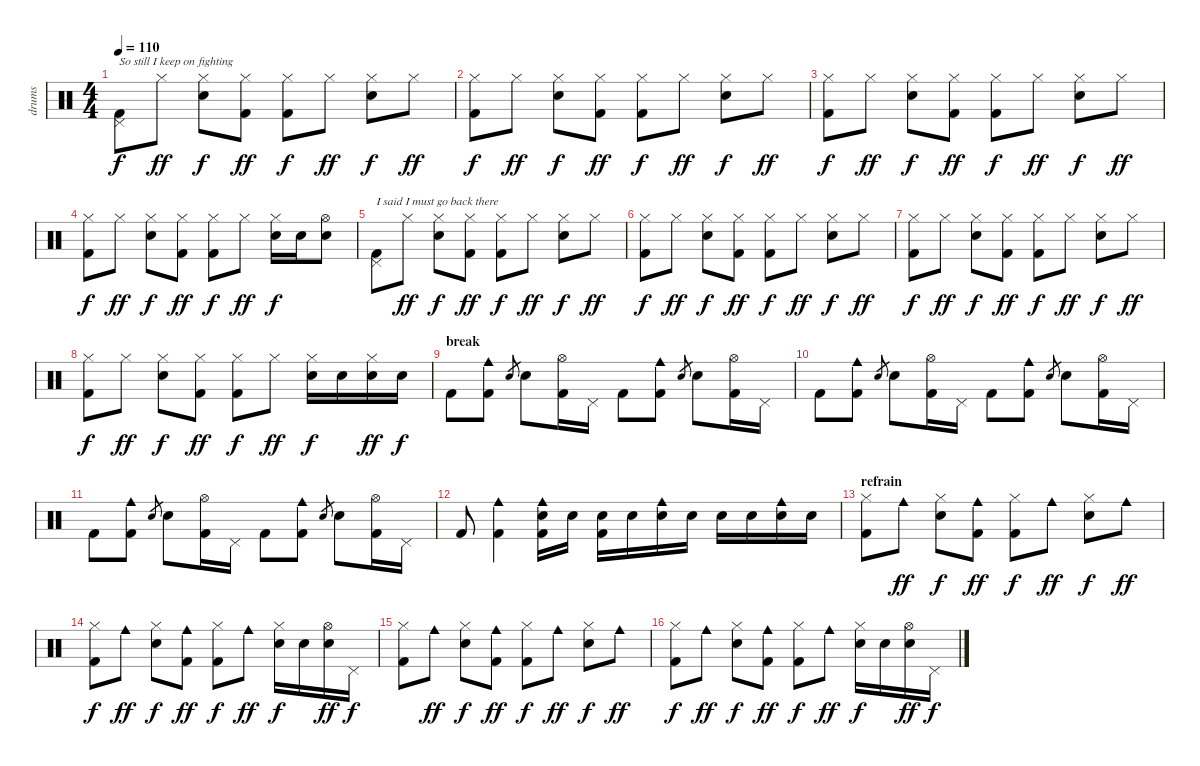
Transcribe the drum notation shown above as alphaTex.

\track ("drums" "drums") {instrument percussion}
\staff {score}
\articulation defaults
\ts (4 4)
\tempo 110
\clef neutral
\ks aminor
("Pedal Hi-Hat (hit)" "Kick (hit) 2").8{txt "So still I keep on fighting" dy f} "Hi-Hat (closed)".8{dy ff} ("Hi-Hat (closed)" "Snare (hit) 2").8{dy f} ("Hi-Hat (closed)" "Kick (hit) 2").8{dy ff} ("Hi-Hat (closed)" "Kick (hit) 2").8{dy f} "Hi-Hat (closed)".8{dy ff} ("Hi-Hat (closed)" "Snare (hit) 2").8{dy f} "Hi-Hat (closed)".8{dy ff} |
("Hi-Hat (closed)" "Kick (hit) 2").8{dy f} "Hi-Hat (closed)".8{dy ff} ("Hi-Hat (closed)" "Snare (hit) 2").8{dy f} ("Hi-Hat (closed)" "Kick (hit) 2").8{dy ff} ("Hi-Hat (closed)" "Kick (hit) 2").8{dy f} "Hi-Hat (closed)".8{dy ff} ("Hi-Hat (closed)" "Snare (hit) 2").8{dy f} "Hi-Hat (closed)".8{dy ff} |
("Hi-Hat (closed)" "Kick (hit) 2").8{dy f} "Hi-Hat (closed)".8{dy ff} ("Hi-Hat (closed)" "Snare (hit) 2").8{dy f} ("Hi-Hat (closed)" "Kick (hit) 2").8{dy ff} ("Hi-Hat (closed)" "Kick (hit) 2").8{dy f} "Hi-Hat (closed)".8{dy ff} ("Hi-Hat (closed)" "Snare (hit) 2").8{dy f} "Hi-Hat (closed)".8{dy ff} |
("Hi-Hat (closed)" "Kick (hit) 2").8{dy f} "Hi-Hat (closed)".8{dy ff} ("Hi-Hat (closed)" "Snare (hit) 2").8{dy f} ("Hi-Hat (closed)" "Kick (hit) 2").8{dy ff} ("Hi-Hat (closed)" "Kick (hit) 2").8{dy f} "Hi-Hat (closed)".8{dy ff} ("Hi-Hat (closed)" "Snare (hit) 2").16{dy f} "Snare (hit) 2".16 ("Hi-Hat (open)" "Snare (hit) 2").8 |
("Pedal Hi-Hat (hit)" "Kick (hit) 2").8{txt "I said I must go back there"} "Hi-Hat (closed)".8{dy ff} ("Hi-Hat (closed)" "Snare (hit) 2").8{dy f} ("Hi-Hat (closed)" "Kick (hit) 2").8{dy ff} ("Hi-Hat (closed)" "Kick (hit) 2").8{dy f} "Hi-Hat (closed)".8{dy ff} ("Hi-Hat (closed)" "Snare (hit) 2").8{dy f} "Hi-Hat (closed)".8{dy ff} |
("Hi-Hat (closed)" "Kick (hit) 2").8{dy f} "Hi-Hat (closed)".8{dy ff} ("Hi-Hat (closed)" "Snare (hit) 2").8{dy f} ("Hi-Hat (closed)" "Kick (hit) 2").8{dy ff} ("Hi-Hat (closed)" "Kick (hit) 2").8{dy f} "Hi-Hat (closed)".8{dy ff} ("Hi-Hat (closed)" "Snare (hit) 2").8{dy f} "Hi-Hat (closed)".8{dy ff} |
("Hi-Hat (closed)" "Kick (hit) 2").8{dy f} "Hi-Hat (closed)".8{dy ff} ("Hi-Hat (closed)" "Snare (hit) 2").8{dy f} ("Hi-Hat (closed)" "Kick (hit) 2").8{dy ff} ("Hi-Hat (closed)" "Kick (hit) 2").8{dy f} "Hi-Hat (closed)".8{dy ff} ("Hi-Hat (closed)" "Snare (hit) 2").8{dy f} "Hi-Hat (closed)".8{dy ff} |
("Hi-Hat (closed)" "Kick (hit) 2").8{dy f} "Hi-Hat (closed)".8{dy ff} ("Hi-Hat (closed)" "Snare (hit) 2").8{dy f} ("Hi-Hat (closed)" "Kick (hit) 2").8{dy ff} ("Hi-Hat (closed)" "Kick (hit) 2").8{dy f} "Hi-Hat (closed)".8{dy ff} ("Hi-Hat (closed)" "Snare (hit) 2").16{dy f} "Snare (hit) 2".16 ("Hi-Hat (closed)" "Snare (hit) 2").16{dy ff} "Snare (hit) 2".16{dy f} |
\section ("" "break")
"Kick (hit) 2".8 ("Cowbell medium (hit)" "Kick (hit) 2").8 "Hand Clap (hit)".8{gr} "Hand Clap (hit)".8 ("Hi-Hat (open)" "Kick (hit) 2").16 "Pedal Hi-Hat (hit)".16 "Kick (hit) 2".8 ("Cowbell medium (hit)" "Kick (hit) 2").8 "Hand Clap (hit)".8{gr} "Hand Clap (hit)".8 ("Hi-Hat (open)" "Kick (hit) 2").16 "Pedal Hi-Hat (hit)".16 |
"Kick (hit) 2".8 ("Cowbell medium (hit)" "Kick (hit) 2").8 "Hand Clap (hit)".8{gr} "Hand Clap (hit)".8 ("Hi-Hat (open)" "Kick (hit) 2").16 "Pedal Hi-Hat (hit)".16 "Kick (hit) 2".8 ("Cowbell medium (hit)" "Kick (hit) 2").8 "Hand Clap (hit)".8{gr} "Hand Clap (hit)".8 ("Hi-Hat (open)" "Kick (hit) 2").16 "Pedal Hi-Hat (hit)".16 |
"Kick (hit) 2".8 ("Cowbell medium (hit)" "Kick (hit) 2").8 "Hand Clap (hit)".8{gr} "Hand Clap (hit)".8 ("Hi-Hat (open)" "Kick (hit) 2").16 "Pedal Hi-Hat (hit)".16 "Kick (hit) 2".8 ("Cowbell medium (hit)" "Kick (hit) 2").8 "Hand Clap (hit)".8{gr} "Hand Clap (hit)".8 ("Hi-Hat (open)" "Kick (hit) 2").16 "Pedal Hi-Hat (hit)".16 |
"Kick (hit) 2".8 ("Cowbell medium (hit)" "Kick (hit) 2").4 ("Cowbell medium (hit)" "Snare (hit) 2" "Kick (hit) 2").16 "Snare (hit) 2".16 ("Snare (hit) 2" "Kick (hit) 2").16 "Snare (hit) 2".16 ("Cowbell medium (hit)" "Snare (hit) 2").16 "Snare (hit) 2".16 "Snare (hit) 2".16 "Snare (hit) 2".16 ("Cowbell medium (hit)" "Snare (hit) 2").16 "Snare (hit) 2".16 |
\section ("" "refrain")
("Hi-Hat (closed)" "Kick (hit) 2").8 "Cowbell medium (hit)".8{dy ff} ("Hi-Hat (closed)" "Snare (hit) 2").8{dy f} ("Cowbell medium (hit)" "Kick (hit) 2").8{dy ff} ("Hi-Hat (closed)" "Kick (hit) 2").8{dy f} "Cowbell medium (hit)".8{dy ff} ("Hi-Hat (closed)" "Snare (hit) 2").8{dy f} "Cowbell medium (hit)".8{dy ff} |
("Hi-Hat (closed)" "Kick (hit) 2").8{dy f} "Cowbell medium (hit)".8{dy ff} ("Hi-Hat (closed)" "Snare (hit) 2").8{dy f} ("Cowbell medium (hit)" "Kick (hit) 2").8{dy ff} ("Hi-Hat (closed)" "Kick (hit) 2").8{dy f} "Cowbell medium (hit)".8{dy ff} ("Hi-Hat (closed)" "Snare (hit) 2").16{dy f} "Snare (hit) 2".16 ("Hi-Hat (open)" "Snare (hit) 2").16{dy ff} "Pedal Hi-Hat (hit)".16{dy f} |
("Hi-Hat (closed)" "Kick (hit) 2").8 "Cowbell medium (hit)".8{dy ff} ("Hi-Hat (closed)" "Snare (hit) 2").8{dy f} ("Cowbell medium (hit)" "Kick (hit) 2").8{dy ff} ("Hi-Hat (closed)" "Kick (hit) 2").8{dy f} "Cowbell medium (hit)".8{dy ff} ("Hi-Hat (closed)" "Snare (hit) 2").8{dy f} "Cowbell medium (hit)".8{dy ff} |
("Hi-Hat (closed)" "Kick (hit) 2").8{dy f} "Cowbell medium (hit)".8{dy ff} ("Hi-Hat (closed)" "Snare (hit) 2").8{dy f} ("Cowbell medium (hit)" "Kick (hit) 2").8{dy ff} ("Hi-Hat (closed)" "Kick (hit) 2").8{dy f} "Cowbell medium (hit)".8{dy ff} ("Hi-Hat (closed)" "Snare (hit) 2").16{dy f} "Snare (hit) 2".16 ("Hi-Hat (open)" "Snare (hit) 2").16{dy ff} "Pedal Hi-Hat (hit)".16{dy f}
